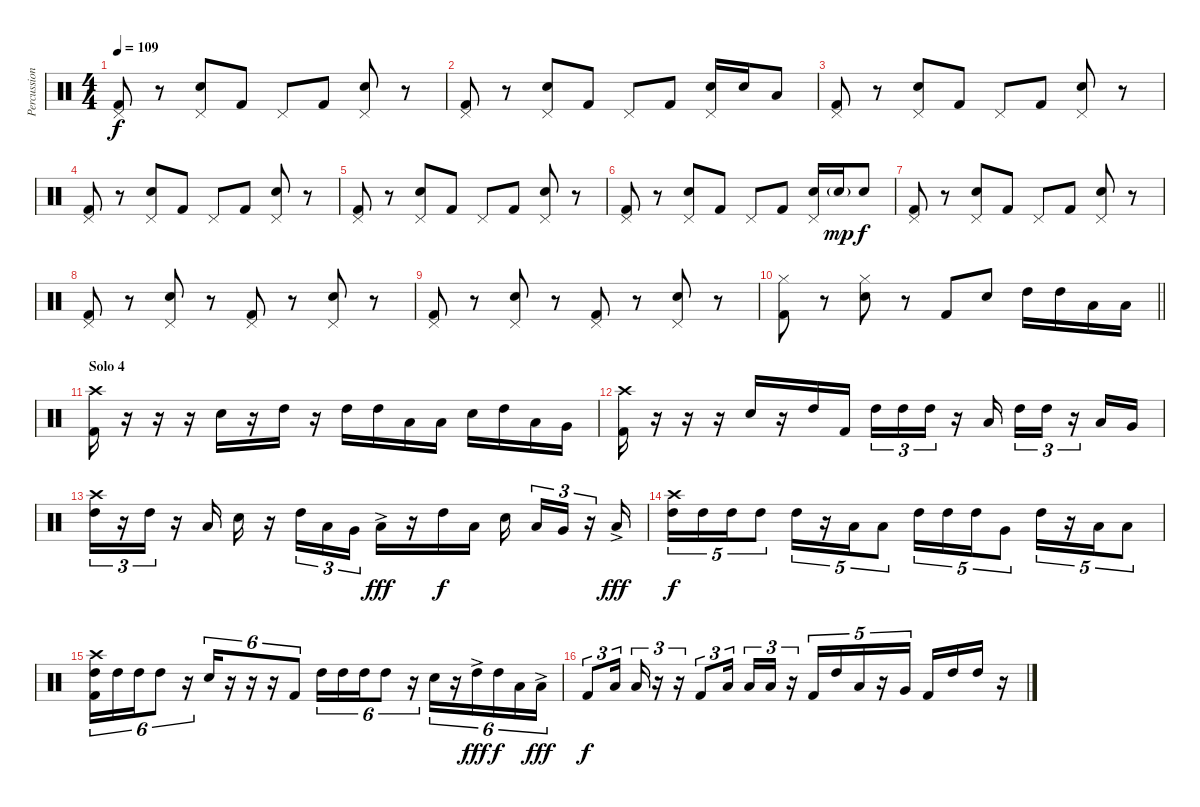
\track ("Percussion" "Percussion") {instrument percussion}
\staff {score}
\articulation defaults
\ts (4 4)
\tempo 109
\clef neutral
\ks c
("Pedal Hi-Hat (hit)" "Kick (hit) 2").8{dy f} r.8 ("Pedal Hi-Hat (hit)" "Snare (hit) 2").8 "Kick (hit) 2".8 "Pedal Hi-Hat (hit)".8 "Kick (hit) 2".8 ("Pedal Hi-Hat (hit)" "Snare (hit) 2").8 r.8 |
("Pedal Hi-Hat (hit)" "Kick (hit) 2").8 r.8 ("Pedal Hi-Hat (hit)" "Snare (hit) 2").8 "Kick (hit) 2".8 "Pedal Hi-Hat (hit)".8 "Kick (hit) 2".8 ("Pedal Hi-Hat (hit)" "Snare (hit) 2").16 "Snare (hit) 2".16 "Low Tom (hit)".8{balance 16} |
("Pedal Hi-Hat (hit)" "Kick (hit) 2").8{balance 8} r.8 ("Pedal Hi-Hat (hit)" "Snare (hit) 2").8 "Kick (hit) 2".8 "Pedal Hi-Hat (hit)".8 "Kick (hit) 2".8 ("Pedal Hi-Hat (hit)" "Snare (hit) 2").8 r.8 |
("Pedal Hi-Hat (hit)" "Kick (hit) 2").8 r.8 ("Pedal Hi-Hat (hit)" "Snare (hit) 2").8 "Kick (hit) 2".8 "Pedal Hi-Hat (hit)".8 "Kick (hit) 2".8 ("Pedal Hi-Hat (hit)" "Snare (hit) 2").8 r.8 |
("Pedal Hi-Hat (hit)" "Kick (hit) 2").8 r.8 ("Pedal Hi-Hat (hit)" "Snare (hit) 2").8 "Kick (hit) 2".8 "Pedal Hi-Hat (hit)".8 "Kick (hit) 2".8 ("Pedal Hi-Hat (hit)" "Snare (hit) 2").8 r.8 |
("Pedal Hi-Hat (hit)" "Kick (hit) 2").8 r.8 ("Pedal Hi-Hat (hit)" "Snare (hit) 2").8 "Kick (hit) 2".8 "Pedal Hi-Hat (hit)".8 "Kick (hit) 2".8 ("Pedal Hi-Hat (hit)" "Snare (hit) 2").16 "Snare (hit) 2"{g}.16{dy mp} "Snare (hit) 2".8{dy f} |
("Pedal Hi-Hat (hit)" "Kick (hit) 2").8 r.8 ("Pedal Hi-Hat (hit)" "Snare (hit) 2").8 "Kick (hit) 2".8 "Pedal Hi-Hat (hit)".8 "Kick (hit) 2".8 ("Pedal Hi-Hat (hit)" "Snare (hit) 2").8 r.8 |
("Pedal Hi-Hat (hit)" "Kick (hit) 2").8 r.8 ("Pedal Hi-Hat (hit)" "Snare (hit) 2").8 r.8 ("Pedal Hi-Hat (hit)" "Kick (hit) 2").8 r.8 ("Pedal Hi-Hat (hit)" "Snare (hit) 2").8 r.8 |
("Pedal Hi-Hat (hit)" "Kick (hit) 2").8 r.8 ("Pedal Hi-Hat (hit)" "Snare (hit) 2").8 r.8 ("Pedal Hi-Hat (hit)" "Kick (hit) 2").8 r.8 ("Pedal Hi-Hat (hit)" "Snare (hit) 2").8 r.8 |
\barLineRight lightlight
("Hi-Hat (closed)" "Kick (hit) 2").8 r.8 ("Hi-Hat (closed)" "Snare (hit) 2").8 r.8 "Kick (hit) 2".8 "Snare (hit) 2".8 "High Tom (hit)".16{balance 16} "High Tom (hit)".16 "Low Tom (hit)".16{balance 0} "Low Tom (hit)".16 |
\section ("" "Solo 4")
("Crash high (hit)" "Kick (hit) 2").16{balance 8} r.16 r.16 r.16 "Snare (hit) 2".16 r.16 "High Tom (hit)".16{balance 16} r.16 "High Tom (hit)".16{balance 11} "High Tom (hit)".16 "Low Tom (hit)".16 "Low Tom (hit)".16 "Snare (hit) 2".16{balance 8} "High Tom (hit)".16{balance 0} "Low Tom (hit)".16 "Very Low Tom (hit)".16{balance 16} |
("Crash high (hit)" "Kick (hit) 2").16{balance 8} r.16 r.16 r.16 "Snare (hit) 2".16 r.16 "High Tom (hit)".16{balance 16} "Kick (hit) 2".16 "High Tom (hit)".16{tu (3 2) balance 0} "High Tom (hit)".16{tu (3 2)} "High Tom (hit)".16{tu (3 2)} r.16 "Low Tom (hit)".16{balance 8} "High Tom (hit)".16{tu (3 2)} "High Tom (hit)".16{tu (3 2) balance 16} r.16{tu (3 2)} "Low Tom (hit)".16 "Very Low Tom (hit)".16 |
("Crash high (hit)" "High Tom (hit)").16{tu (3 2) balance 8} r.16{tu (3 2)} "High Tom (hit)".16{tu (3 2)} r.16 "Low Tom (hit)".16{balance 16} "Snare (hit) 2".16{balance 8} r.16 "High Tom (hit)".16{tu (3 2) balance 0} "Low Tom (hit)".16{tu (3 2)} "Very Low Tom (hit)".16{tu (3 2)} "Low Floor Tom (hit)"{ac}.16{dy fff balance 8} r.16 "High Tom (hit)".16{dy f balance 16} "Low Tom (hit)".16 "Snare (hit) 2".16{balance 8} "Low Tom (hit)".16{tu (3 2) balance 16} "Very Low Tom (hit)".16{tu (3 2)} r.16{tu (3 2)} "Low Floor Tom (hit)"{ac}.16{dy fff balance 0} |
("Crash high (hit)" "High Tom (hit)").16{tu (5 4) dy f balance 8} "High Tom (hit)".16{tu (5 4)} "High Tom (hit)".16{tu (5 4)} "High Tom (hit)".8{tu (5 4)} "High Tom (hit)".16{tu (5 4) balance 16} r.16{tu (5 4)} "Low Tom (hit)".16{tu (5 4)} "Low Tom (hit)".8{tu (5 4)} "High Tom (hit)".16{tu (5 4) balance 0} "High Tom (hit)".16{tu (5 4)} "High Tom (hit)".16{tu (5 4)} "Very Low Tom (hit)".8{tu (5 4) balance 16} "High Tom (hit)".16{tu (5 4)} r.16{tu (5 4)} "Low Tom (hit)".16{tu (5 4)} "Low Tom (hit)".8{tu (5 4) balance 8} |
("Crash high (hit)" "High Tom (hit)" "Kick (hit) 2").16{tu (6 4) balance 8} "High Tom (hit)".16{tu (6 4)} "High Tom (hit)".16{tu (6 4)} "High Tom (hit)".8{tu (6 4) balance 16} r.16{tu (6 4)} "Snare (hit) 2".16{tu (6 4) balance 8} r.16{tu (6 4)} r.16{tu (6 4)} r.16{tu (6 4)} "Kick (hit) 2".8{tu (6 4)} "High Tom (hit)".16{tu (6 4) balance 0} "High Tom (hit)".16{tu (6 4)} "High Tom (hit)".16{tu (6 4)} "High Tom (hit)".8{tu (6 4)} r.16{tu (6 4)} "Snare (hit) 2".16{tu (6 4) balance 8} r.16{tu (6 4)} "High Tom (hit)"{ac}.16{tu (6 4) dy fff balance 0} "High Tom (hit)".16{tu (6 4) dy f} "Low Tom (hit)".16{tu (6 4)} "Low Floor Tom (hit)"{ac}.16{tu (6 4) dy fff balance 16} |
"Kick (hit) 2".8{tu (3 2) dy f} "Low Tom (hit)".16{tu (3 2)} "Low Tom (hit)".16{tu (3 2)} r.16{tu (3 2)} r.16{tu (3 2)} "Kick (hit) 2".8{tu (3 2)} "Low Tom (hit)".16{tu (3 2)} "Low Tom (hit)".16{tu (3 2)} "Low Floor Tom (hit)".16{tu (3 2)} r.16{tu (3 2)} "Kick (hit) 2".16{tu (5 4)} "High Tom (hit)".16{tu (5 4)} "Low Tom (hit)".16{tu (5 4)} r.16{tu (5 4)} "Very Low Tom (hit)".16{tu (5 4)} "Kick (hit) 2".16 "High Tom (hit)".16 "High Tom (hit)".16 r.16
